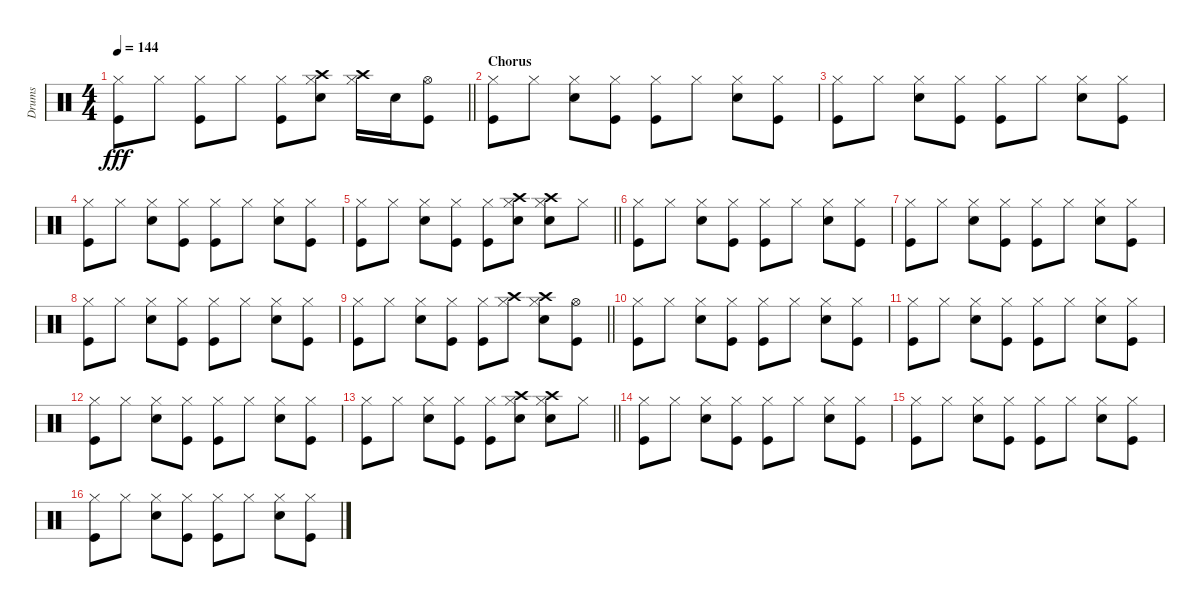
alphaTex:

\track ("Drums" "Drums") {instrument percussion}
\staff {score}
\articulation defaults
\ts (4 4)
\tempo 144
\clef neutral
\barLineRight lightlight
\ks c
("Hi-Hat (closed)" "Kick (hit)").8{dy fff} "Hi-Hat (closed)".8 ("Hi-Hat (closed)" "Kick (hit)").8 "Hi-Hat (closed)".8 ("Hi-Hat (closed)" "Kick (hit)").8 ("Hi-Hat (closed)" "Crash high (hit)" "Snare (hit) 2").8 ("Hi-Hat (closed)" "Crash high (hit)").16 "Snare (hit) 2".16 ("Hi-Hat (open)" "Kick (hit)").8 |
\section ("" "Chorus")
("Hi-Hat (closed)" "Kick (hit)").8 "Hi-Hat (closed)".8 ("Snare (hit) 2" "Hi-Hat (closed)").8 ("Kick (hit)" "Hi-Hat (closed)").8 ("Kick (hit)" "Hi-Hat (closed)").8 "Hi-Hat (closed)".8 ("Snare (hit) 2" "Hi-Hat (closed)").8 ("Hi-Hat (closed)" "Kick (hit)").8 |
("Hi-Hat (closed)" "Kick (hit)").8 "Hi-Hat (closed)".8 ("Snare (hit) 2" "Hi-Hat (closed)").8 ("Kick (hit)" "Hi-Hat (closed)").8 ("Kick (hit)" "Hi-Hat (closed)").8 "Hi-Hat (closed)".8 ("Snare (hit) 2" "Hi-Hat (closed)").8 ("Hi-Hat (closed)" "Kick (hit)").8 |
("Hi-Hat (closed)" "Kick (hit)").8 "Hi-Hat (closed)".8 ("Snare (hit) 2" "Hi-Hat (closed)").8 ("Kick (hit)" "Hi-Hat (closed)").8 ("Hi-Hat (closed)" "Kick (hit)").8 "Hi-Hat (closed)".8 ("Snare (hit) 2" "Hi-Hat (closed)").8 ("Hi-Hat (closed)" "Kick (hit)").8 |
\barLineRight lightlight
("Hi-Hat (closed)" "Kick (hit)").8 "Hi-Hat (closed)".8 ("Snare (hit) 2" "Hi-Hat (closed)").8 ("Kick (hit)" "Hi-Hat (closed)").8 ("Kick (hit)" "Hi-Hat (closed)").8 ("Hi-Hat (closed)" "Crash high (hit)" "Snare (hit) 2").8 ("Hi-Hat (closed)" "Crash high (hit)" "Snare (hit) 2").8 "Hi-Hat (closed)".8 |
("Hi-Hat (closed)" "Kick (hit)").8 "Hi-Hat (closed)".8 ("Snare (hit) 2" "Hi-Hat (closed)").8 ("Kick (hit)" "Hi-Hat (closed)").8 ("Kick (hit)" "Hi-Hat (closed)").8 "Hi-Hat (closed)".8 ("Snare (hit) 2" "Hi-Hat (closed)").8 ("Hi-Hat (closed)" "Kick (hit)").8 |
("Hi-Hat (closed)" "Kick (hit)").8 "Hi-Hat (closed)".8 ("Snare (hit) 2" "Hi-Hat (closed)").8 ("Kick (hit)" "Hi-Hat (closed)").8 ("Kick (hit)" "Hi-Hat (closed)").8 "Hi-Hat (closed)".8 ("Snare (hit) 2" "Hi-Hat (closed)").8 ("Hi-Hat (closed)" "Kick (hit)").8 |
("Hi-Hat (closed)" "Kick (hit)").8 "Hi-Hat (closed)".8 ("Snare (hit) 2" "Hi-Hat (closed)").8 ("Kick (hit)" "Hi-Hat (closed)").8 ("Hi-Hat (closed)" "Kick (hit)").8 "Hi-Hat (closed)".8 ("Snare (hit) 2" "Hi-Hat (closed)").8 ("Hi-Hat (closed)" "Kick (hit)").8 |
\barLineRight lightlight
("Kick (hit)" "Hi-Hat (closed)").8 "Hi-Hat (closed)".8 ("Snare (hit) 2" "Hi-Hat (closed)").8 ("Kick (hit)" "Hi-Hat (closed)").8 ("Hi-Hat (closed)" "Kick (hit)").8 ("Crash high (hit)" "Hi-Hat (closed)").8 ("Crash high (hit)" "Snare (hit) 2" "Hi-Hat (closed)").8 ("Hi-Hat (open)" "Kick (hit)").8 |
("Hi-Hat (closed)" "Kick (hit)").8 "Hi-Hat (closed)".8 ("Snare (hit) 2" "Hi-Hat (closed)").8 ("Kick (hit)" "Hi-Hat (closed)").8 ("Kick (hit)" "Hi-Hat (closed)").8 "Hi-Hat (closed)".8 ("Snare (hit) 2" "Hi-Hat (closed)").8 ("Hi-Hat (closed)" "Kick (hit)").8 |
("Hi-Hat (closed)" "Kick (hit)").8 "Hi-Hat (closed)".8 ("Snare (hit) 2" "Hi-Hat (closed)").8 ("Kick (hit)" "Hi-Hat (closed)").8 ("Kick (hit)" "Hi-Hat (closed)").8 "Hi-Hat (closed)".8 ("Snare (hit) 2" "Hi-Hat (closed)").8 ("Hi-Hat (closed)" "Kick (hit)").8 |
("Hi-Hat (closed)" "Kick (hit)").8 "Hi-Hat (closed)".8 ("Snare (hit) 2" "Hi-Hat (closed)").8 ("Kick (hit)" "Hi-Hat (closed)").8 ("Hi-Hat (closed)" "Kick (hit)").8 "Hi-Hat (closed)".8 ("Snare (hit) 2" "Hi-Hat (closed)").8 ("Hi-Hat (closed)" "Kick (hit)").8 |
\barLineRight lightlight
("Hi-Hat (closed)" "Kick (hit)").8 "Hi-Hat (closed)".8 ("Snare (hit) 2" "Hi-Hat (closed)").8 ("Kick (hit)" "Hi-Hat (closed)").8 ("Kick (hit)" "Hi-Hat (closed)").8 ("Hi-Hat (closed)" "Crash high (hit)" "Snare (hit) 2").8 ("Hi-Hat (closed)" "Crash high (hit)" "Snare (hit) 2").8 "Hi-Hat (closed)".8 |
("Hi-Hat (closed)" "Kick (hit)").8 "Hi-Hat (closed)".8 ("Snare (hit) 2" "Hi-Hat (closed)").8 ("Kick (hit)" "Hi-Hat (closed)").8 ("Kick (hit)" "Hi-Hat (closed)").8 "Hi-Hat (closed)".8 ("Snare (hit) 2" "Hi-Hat (closed)").8 ("Hi-Hat (closed)" "Kick (hit)").8 |
("Hi-Hat (closed)" "Kick (hit)").8 "Hi-Hat (closed)".8 ("Snare (hit) 2" "Hi-Hat (closed)").8 ("Kick (hit)" "Hi-Hat (closed)").8 ("Kick (hit)" "Hi-Hat (closed)").8 "Hi-Hat (closed)".8 ("Snare (hit) 2" "Hi-Hat (closed)").8 ("Hi-Hat (closed)" "Kick (hit)").8 |
("Hi-Hat (closed)" "Kick (hit)").8 "Hi-Hat (closed)".8 ("Snare (hit) 2" "Hi-Hat (closed)").8 ("Kick (hit)" "Hi-Hat (closed)").8 ("Hi-Hat (closed)" "Kick (hit)").8 "Hi-Hat (closed)".8 ("Snare (hit) 2" "Hi-Hat (closed)").8 ("Hi-Hat (closed)" "Kick (hit)").8
